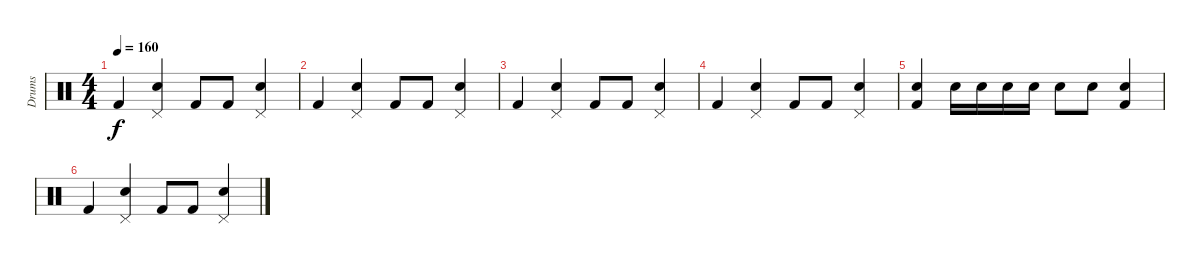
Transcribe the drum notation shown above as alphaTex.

\track ("Drums" "Drums") {instrument percussion}
\staff {score}
\articulation defaults
\ts (4 4)
\tempo 160
\clef neutral
\ks c "Kick (hit) 2".4{dy f}
("Pedal Hi-Hat (hit)" "Electric Snare (hit)").4 "Kick (hit) 2".8 "Kick (hit) 2".8 ("Pedal Hi-Hat (hit)" "Electric Snare (hit)").4 |
"Kick (hit) 2".4 ("Pedal Hi-Hat (hit)" "Electric Snare (hit)").4 "Kick (hit) 2".8 "Kick (hit) 2".8 ("Pedal Hi-Hat (hit)" "Electric Snare (hit)").4 |
"Kick (hit) 2".4 ("Pedal Hi-Hat (hit)" "Electric Snare (hit)").4 "Kick (hit) 2".8 "Kick (hit) 2".8 ("Pedal Hi-Hat (hit)" "Electric Snare (hit)").4 |
"Kick (hit) 2".4 ("Pedal Hi-Hat (hit)" "Electric Snare (hit)").4 "Kick (hit) 2".8 "Kick (hit) 2".8 ("Pedal Hi-Hat (hit)" "Electric Snare (hit)").4 |
("Kick (hit) 2" "Electric Snare (hit)").4 "Electric Snare (hit)".16 "Electric Snare (hit)".16 "Electric Snare (hit)".16 "Electric Snare (hit)".16 "Electric Snare (hit)".8 "Electric Snare (hit)".8 ("Kick (hit) 2" "Electric Snare (hit)").4 |
"Kick (hit) 2".4 ("Pedal Hi-Hat (hit)" "Electric Snare (hit)").4 "Kick (hit) 2".8 "Kick (hit) 2".8 ("Pedal Hi-Hat (hit)" "Electric Snare (hit)").4
